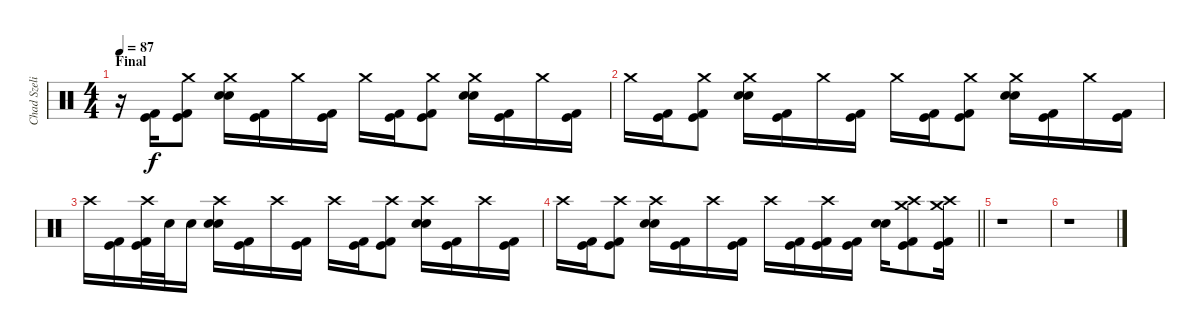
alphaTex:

\track ("Chad Szeliga" "Chad Szeli") {instrument percussion}
\staff {score}
\articulation defaults
\ts (4 4)
\section ("" "Final")
\tempo 87
\clef neutral
\ks c
r.16{dy f} ("Kick (hit) 2" "Kick (hit)").16 ("Crash medium (hit)" "Kick (hit) 2" "Kick (hit)").8 ("Crash medium (hit)" "Snare (hit) 2" "Snare (hit) 2").16 ("Kick (hit) 2" "Kick (hit)").16 "Crash medium (hit)".16 ("Kick (hit) 2" "Kick (hit)").16 "Crash medium (hit)".16 ("Kick (hit) 2" "Kick (hit)").16 ("Crash medium (hit)" "Kick (hit) 2" "Kick (hit)").8 ("Crash medium (hit)" "Snare (hit) 2" "Snare (hit) 2").16 ("Kick (hit) 2" "Kick (hit)").16 "Crash medium (hit)".16 ("Kick (hit) 2" "Kick (hit)").16 |
"Crash medium (hit)".16 ("Kick (hit) 2" "Kick (hit)").16 ("Crash medium (hit)" "Kick (hit) 2" "Kick (hit)").8 ("Crash medium (hit)" "Snare (hit) 2" "Snare (hit) 2").16 ("Kick (hit) 2" "Kick (hit)").16 "Crash medium (hit)".16 ("Kick (hit) 2" "Kick (hit)").16 "Crash medium (hit)".16 ("Kick (hit) 2" "Kick (hit)").16 ("Crash medium (hit)" "Kick (hit) 2" "Kick (hit)").8 ("Crash medium (hit)" "Snare (hit) 2" "Snare (hit) 2").16 ("Kick (hit) 2" "Kick (hit)").16 "Crash medium (hit)".16 ("Kick (hit) 2" "Kick (hit)").16 |
"Crash high (hit)".16 ("Kick (hit) 2" "Kick (hit)").16 ("Crash high (hit)" "Kick (hit) 2" "Kick (hit)").32 "Snare (hit) 2".32 "Snare (hit) 2".16 ("Crash high (hit)" "Snare (hit) 2" "Snare (hit) 2").16 ("Kick (hit) 2" "Kick (hit)").16 "Crash high (hit)".16 ("Kick (hit) 2" "Kick (hit)").16 "Crash high (hit)".16 ("Kick (hit) 2" "Kick (hit)").16 ("Crash high (hit)" "Kick (hit) 2" "Kick (hit)").8 ("Crash high (hit)" "Snare (hit) 2" "Snare (hit) 2").16 ("Kick (hit) 2" "Kick (hit)").16 "Crash high (hit)".16 ("Kick (hit) 2" "Kick (hit)").16 |
\barLineRight lightlight "Crash high (hit)".16
("Kick (hit) 2" "Kick (hit)").16 ("Crash high (hit)" "Kick (hit) 2" "Kick (hit)").8 ("Crash high (hit)" "Snare (hit) 2" "Snare (hit) 2").16 ("Kick (hit) 2" "Kick (hit)").16 "Crash high (hit)".16 ("Kick (hit) 2" "Kick (hit)").16 "Crash high (hit)".16 ("Kick (hit) 2" "Kick (hit)").16 ("Crash high (hit)" "Kick (hit) 2" "Kick (hit)").16 ("Kick (hit) 2" "Kick (hit)").16 ("Snare (hit) 2" "Snare (hit) 2").16 ("Crash high (hit)" "Kick (hit) 2" "Kick (hit)" "Crash medium (hit)").8 ("Crash high (hit)" "Kick (hit) 2" "Kick (hit)" "Crash medium (hit)").16 |
r.1 |
r.1
